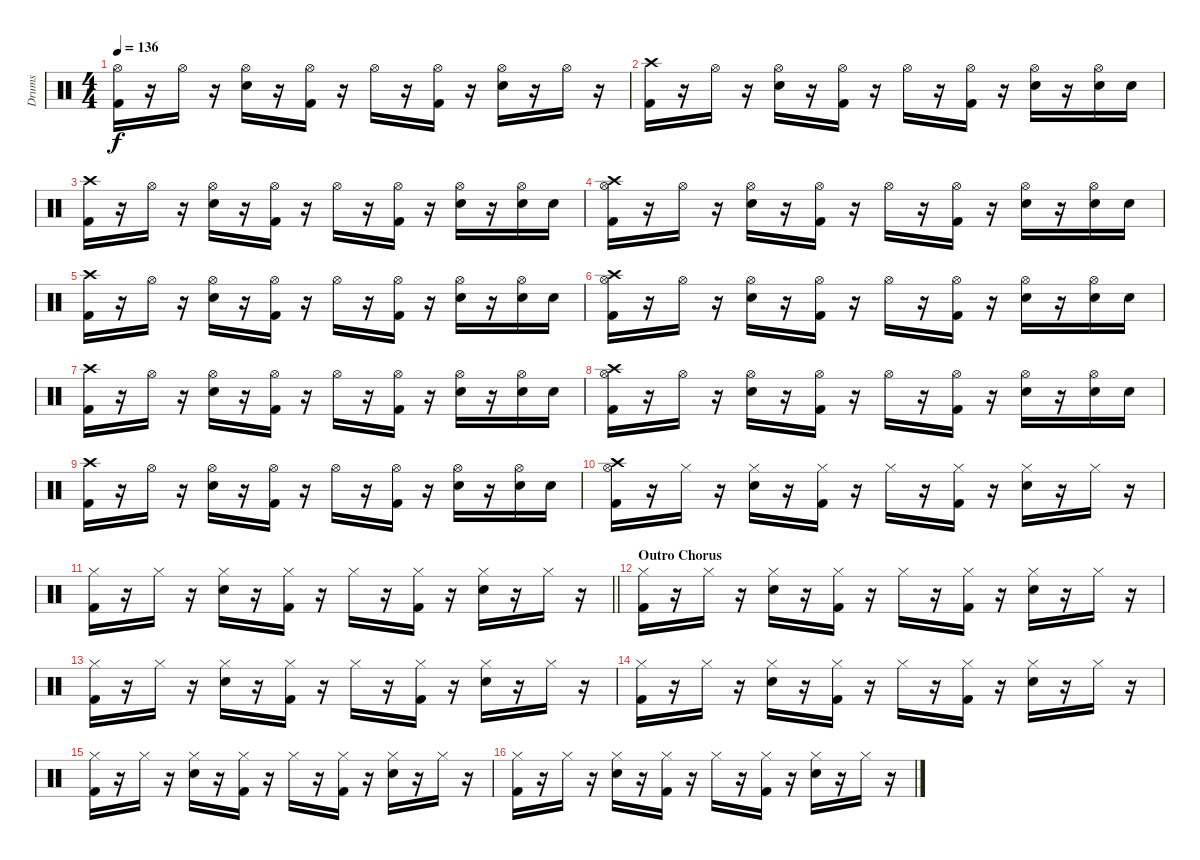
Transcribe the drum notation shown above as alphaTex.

\track ("Drums" "Drums") {instrument percussion}
\staff {score}
\articulation defaults
\ts (4 4)
\tempo 136
\clef neutral
\ks c
("Kick (hit) 2" "Hi-Hat (open)").16{dy f} r.16 "Hi-Hat (open)".16 r.16 ("Electric Snare (hit)" "Hi-Hat (open)").16 r.16 ("Kick (hit) 2" "Hi-Hat (open)").16 r.16 "Hi-Hat (open)".16 r.16 ("Kick (hit) 2" "Hi-Hat (open)").16 r.16 ("Electric Snare (hit)" "Hi-Hat (open)").16 r.16 "Hi-Hat (open)".16 r.16 |
("Kick (hit) 2" "Crash high (hit)").16 r.16 "Hi-Hat (open)".16 r.16 ("Electric Snare (hit)" "Hi-Hat (open)").16 r.16 ("Kick (hit) 2" "Hi-Hat (open)").16 r.16 "Hi-Hat (open)".16 r.16 ("Kick (hit) 2" "Hi-Hat (open)").16 r.16 ("Electric Snare (hit)" "Hi-Hat (open)").16 r.16 ("Electric Snare (hit)" "Hi-Hat (open)").16 "Electric Snare (hit)".16 |
("Kick (hit) 2" "Crash high (hit)").16 r.16 "Hi-Hat (open)".16 r.16 ("Electric Snare (hit)" "Hi-Hat (open)").16 r.16 ("Kick (hit) 2" "Hi-Hat (open)").16 r.16 "Hi-Hat (open)".16 r.16 ("Kick (hit) 2" "Hi-Hat (open)").16 r.16 ("Electric Snare (hit)" "Hi-Hat (open)").16 r.16 ("Electric Snare (hit)" "Hi-Hat (open)").16 "Electric Snare (hit)".16 |
("Kick (hit) 2" "Hi-Hat (open)" "Crash high (hit)").16 r.16 "Hi-Hat (open)".16 r.16 ("Electric Snare (hit)" "Hi-Hat (open)").16 r.16 ("Kick (hit) 2" "Hi-Hat (open)").16 r.16 "Hi-Hat (open)".16 r.16 ("Kick (hit) 2" "Hi-Hat (open)").16 r.16 ("Electric Snare (hit)" "Hi-Hat (open)").16 r.16 ("Electric Snare (hit)" "Hi-Hat (open)").16 "Electric Snare (hit)".16 |
("Kick (hit) 2" "Crash high (hit)").16 r.16 "Hi-Hat (open)".16 r.16 ("Electric Snare (hit)" "Hi-Hat (open)").16 r.16 ("Kick (hit) 2" "Hi-Hat (open)").16 r.16 "Hi-Hat (open)".16 r.16 ("Kick (hit) 2" "Hi-Hat (open)").16 r.16 ("Electric Snare (hit)" "Hi-Hat (open)").16 r.16 ("Electric Snare (hit)" "Hi-Hat (open)").16 "Electric Snare (hit)".16 |
("Kick (hit) 2" "Hi-Hat (open)" "Crash high (hit)").16 r.16 "Hi-Hat (open)".16 r.16 ("Electric Snare (hit)" "Hi-Hat (open)").16 r.16 ("Kick (hit) 2" "Hi-Hat (open)").16 r.16 "Hi-Hat (open)".16 r.16 ("Kick (hit) 2" "Hi-Hat (open)").16 r.16 ("Electric Snare (hit)" "Hi-Hat (open)").16 r.16 ("Electric Snare (hit)" "Hi-Hat (open)").16 "Electric Snare (hit)".16 |
("Kick (hit) 2" "Crash high (hit)").16 r.16 "Hi-Hat (open)".16 r.16 ("Electric Snare (hit)" "Hi-Hat (open)").16 r.16 ("Kick (hit) 2" "Hi-Hat (open)").16 r.16 "Hi-Hat (open)".16 r.16 ("Kick (hit) 2" "Hi-Hat (open)").16 r.16 ("Electric Snare (hit)" "Hi-Hat (open)").16 r.16 ("Electric Snare (hit)" "Hi-Hat (open)").16 "Electric Snare (hit)".16 |
("Kick (hit) 2" "Hi-Hat (open)" "Crash high (hit)").16 r.16 "Hi-Hat (open)".16 r.16 ("Electric Snare (hit)" "Hi-Hat (open)").16 r.16 ("Kick (hit) 2" "Hi-Hat (open)").16 r.16 "Hi-Hat (open)".16 r.16 ("Kick (hit) 2" "Hi-Hat (open)").16 r.16 ("Electric Snare (hit)" "Hi-Hat (open)").16 r.16 ("Electric Snare (hit)" "Hi-Hat (open)").16 "Electric Snare (hit)".16 |
("Kick (hit) 2" "Crash high (hit)").16 r.16 "Hi-Hat (open)".16 r.16 ("Electric Snare (hit)" "Hi-Hat (open)").16 r.16 ("Kick (hit) 2" "Hi-Hat (open)").16 r.16 "Hi-Hat (open)".16 r.16 ("Kick (hit) 2" "Hi-Hat (open)").16 r.16 ("Electric Snare (hit)" "Hi-Hat (open)").16 r.16 ("Electric Snare (hit)" "Hi-Hat (open)").16 "Electric Snare (hit)".16 |
("Kick (hit) 2" "Hi-Hat (open)" "Crash high (hit)").16 r.16 "Hi-Hat (closed)".16 r.16 ("Electric Snare (hit)" "Hi-Hat (closed)").16 r.16 ("Kick (hit) 2" "Hi-Hat (closed)").16 r.16 "Hi-Hat (closed)".16 r.16 ("Kick (hit) 2" "Hi-Hat (closed)").16 r.16 ("Electric Snare (hit)" "Hi-Hat (closed)").16 r.16 "Hi-Hat (closed)".16 r.16 |
\barLineRight lightlight
("Kick (hit) 2" "Hi-Hat (closed)").16 r.16 "Hi-Hat (closed)".16 r.16 ("Electric Snare (hit)" "Hi-Hat (closed)").16 r.16 ("Kick (hit) 2" "Hi-Hat (closed)").16 r.16 "Hi-Hat (closed)".16 r.16 ("Kick (hit) 2" "Hi-Hat (closed)").16 r.16 ("Electric Snare (hit)" "Hi-Hat (closed)").16 r.16 "Hi-Hat (closed)".16 r.16 |
\section ("" "Outro Chorus")
("Kick (hit) 2" "Hi-Hat (closed)").16 r.16 "Hi-Hat (closed)".16 r.16 ("Electric Snare (hit)" "Hi-Hat (closed)").16 r.16 ("Kick (hit) 2" "Hi-Hat (closed)").16 r.16 "Hi-Hat (closed)".16 r.16 ("Kick (hit) 2" "Hi-Hat (closed)").16 r.16 ("Electric Snare (hit)" "Hi-Hat (closed)").16 r.16 "Hi-Hat (closed)".16 r.16 |
("Kick (hit) 2" "Hi-Hat (closed)").16 r.16 "Hi-Hat (closed)".16 r.16 ("Electric Snare (hit)" "Hi-Hat (closed)").16 r.16 ("Kick (hit) 2" "Hi-Hat (closed)").16 r.16 "Hi-Hat (closed)".16 r.16 ("Kick (hit) 2" "Hi-Hat (closed)").16 r.16 ("Electric Snare (hit)" "Hi-Hat (closed)").16 r.16 "Hi-Hat (closed)".16 r.16 |
("Kick (hit) 2" "Hi-Hat (closed)").16 r.16 "Hi-Hat (closed)".16 r.16 ("Electric Snare (hit)" "Hi-Hat (closed)").16 r.16 ("Kick (hit) 2" "Hi-Hat (closed)").16 r.16 "Hi-Hat (closed)".16 r.16 ("Kick (hit) 2" "Hi-Hat (closed)").16 r.16 ("Electric Snare (hit)" "Hi-Hat (closed)").16 r.16 "Hi-Hat (closed)".16 r.16 |
("Kick (hit) 2" "Hi-Hat (closed)").16 r.16 "Hi-Hat (closed)".16 r.16 ("Electric Snare (hit)" "Hi-Hat (closed)").16 r.16 ("Kick (hit) 2" "Hi-Hat (closed)").16 r.16 "Hi-Hat (closed)".16 r.16 ("Kick (hit) 2" "Hi-Hat (closed)").16 r.16 ("Electric Snare (hit)" "Hi-Hat (closed)").16 r.16 "Hi-Hat (closed)".16 r.16 |
("Kick (hit) 2" "Hi-Hat (closed)").16 r.16 "Hi-Hat (closed)".16 r.16 ("Electric Snare (hit)" "Hi-Hat (closed)").16 r.16 ("Kick (hit) 2" "Hi-Hat (closed)").16 r.16 "Hi-Hat (closed)".16 r.16 ("Kick (hit) 2" "Hi-Hat (closed)").16 r.16 ("Electric Snare (hit)" "Hi-Hat (closed)").16 r.16 "Hi-Hat (closed)".16 r.16
